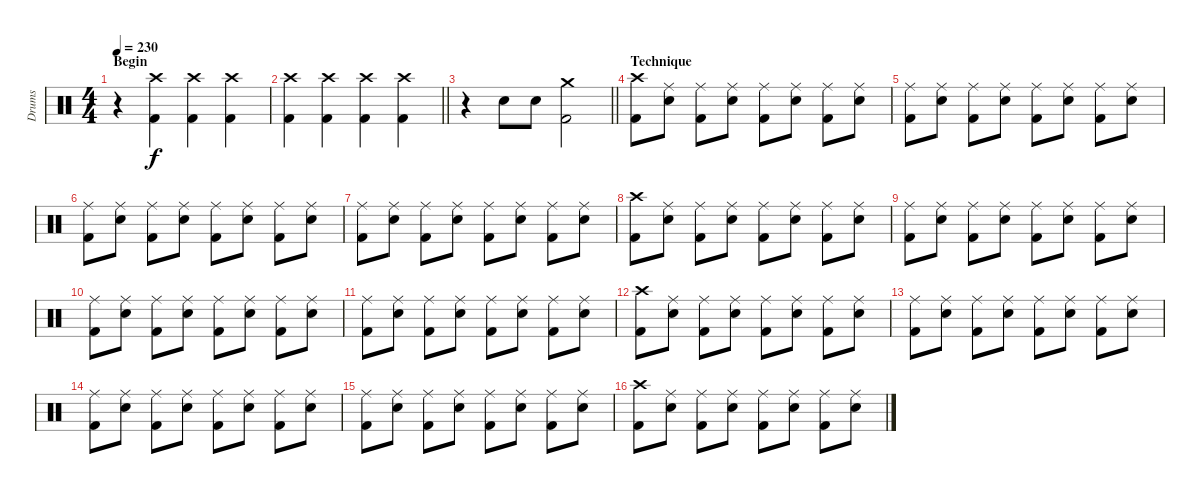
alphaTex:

\track ("Drums" "Drums") {instrument percussion}
\staff {score}
\articulation defaults
\ts (4 4)
\section ("" "Begin")
\tempo 230
\clef neutral
\ks c
r.4{dy f} ("Crash high (hit)" "Kick (hit) 2").4 ("Crash high (hit)" "Kick (hit) 2").4 ("Crash high (hit)" "Kick (hit) 2").4 |
\barLineRight lightlight
("Crash high (hit)" "Kick (hit) 2").4 ("Crash high (hit)" "Kick (hit) 2").4 ("Crash high (hit)" "Kick (hit) 2").4 ("Crash high (hit)" "Kick (hit) 2").4 |
\section ("" "")
\barLineRight lightlight
r.4 "Snare (hit) 2".8 "Snare (hit) 2".8 ("Crash medium (hit)" "Kick (hit) 2").2 |
\section ("" "Technique")
("Crash high (hit)" "Kick (hit) 2").8 ("Ride (middle)" "Snare (hit) 2").8 ("Ride (middle)" "Kick (hit) 2").8 ("Ride (middle)" "Snare (hit) 2").8 ("Ride (middle)" "Kick (hit) 2").8 ("Ride (middle)" "Snare (hit) 2").8 ("Ride (middle)" "Kick (hit) 2").8 ("Ride (middle)" "Snare (hit) 2").8 |
("Ride (middle)" "Kick (hit) 2").8 ("Ride (middle)" "Snare (hit) 2").8 ("Ride (middle)" "Kick (hit) 2").8 ("Ride (middle)" "Snare (hit) 2").8 ("Ride (middle)" "Kick (hit) 2").8 ("Ride (middle)" "Snare (hit) 2").8 ("Ride (middle)" "Kick (hit) 2").8 ("Ride (middle)" "Snare (hit) 2").8 |
("Ride (middle)" "Kick (hit) 2").8 ("Ride (middle)" "Snare (hit) 2").8 ("Ride (middle)" "Kick (hit) 2").8 ("Ride (middle)" "Snare (hit) 2").8 ("Ride (middle)" "Kick (hit) 2").8 ("Ride (middle)" "Snare (hit) 2").8 ("Ride (middle)" "Kick (hit) 2").8 ("Ride (middle)" "Snare (hit) 2").8 |
("Ride (middle)" "Kick (hit) 2").8 ("Ride (middle)" "Snare (hit) 2").8 ("Ride (middle)" "Kick (hit) 2").8 ("Ride (middle)" "Snare (hit) 2").8 ("Ride (middle)" "Kick (hit) 2").8 ("Ride (middle)" "Snare (hit) 2").8 ("Ride (middle)" "Kick (hit) 2").8 ("Ride (middle)" "Snare (hit) 2").8 |
("Crash high (hit)" "Kick (hit) 2").8 ("Ride (middle)" "Snare (hit) 2").8 ("Ride (middle)" "Kick (hit) 2").8 ("Ride (middle)" "Snare (hit) 2").8 ("Ride (middle)" "Kick (hit) 2").8 ("Ride (middle)" "Snare (hit) 2").8 ("Ride (middle)" "Kick (hit) 2").8 ("Ride (middle)" "Snare (hit) 2").8 |
("Ride (middle)" "Kick (hit) 2").8 ("Ride (middle)" "Snare (hit) 2").8 ("Ride (middle)" "Kick (hit) 2").8 ("Ride (middle)" "Snare (hit) 2").8 ("Ride (middle)" "Kick (hit) 2").8 ("Ride (middle)" "Snare (hit) 2").8 ("Ride (middle)" "Kick (hit) 2").8 ("Ride (middle)" "Snare (hit) 2").8 |
("Ride (middle)" "Kick (hit) 2").8 ("Ride (middle)" "Snare (hit) 2").8 ("Ride (middle)" "Kick (hit) 2").8 ("Ride (middle)" "Snare (hit) 2").8 ("Ride (middle)" "Kick (hit) 2").8 ("Ride (middle)" "Snare (hit) 2").8 ("Ride (middle)" "Kick (hit) 2").8 ("Ride (middle)" "Snare (hit) 2").8 |
("Ride (middle)" "Kick (hit) 2").8 ("Ride (middle)" "Snare (hit) 2").8 ("Ride (middle)" "Kick (hit) 2").8 ("Ride (middle)" "Snare (hit) 2").8 ("Ride (middle)" "Kick (hit) 2").8 ("Ride (middle)" "Snare (hit) 2").8 ("Ride (middle)" "Kick (hit) 2").8 ("Ride (middle)" "Snare (hit) 2").8 |
("Crash high (hit)" "Kick (hit) 2").8 ("Ride (middle)" "Snare (hit) 2").8 ("Ride (middle)" "Kick (hit) 2").8 ("Ride (middle)" "Snare (hit) 2").8 ("Ride (middle)" "Kick (hit) 2").8 ("Ride (middle)" "Snare (hit) 2").8 ("Ride (middle)" "Kick (hit) 2").8 ("Ride (middle)" "Snare (hit) 2").8 |
("Ride (middle)" "Kick (hit) 2").8 ("Ride (middle)" "Snare (hit) 2").8 ("Ride (middle)" "Kick (hit) 2").8 ("Ride (middle)" "Snare (hit) 2").8 ("Ride (middle)" "Kick (hit) 2").8 ("Ride (middle)" "Snare (hit) 2").8 ("Ride (middle)" "Kick (hit) 2").8 ("Ride (middle)" "Snare (hit) 2").8 |
("Ride (middle)" "Kick (hit) 2").8 ("Ride (middle)" "Snare (hit) 2").8 ("Ride (middle)" "Kick (hit) 2").8 ("Ride (middle)" "Snare (hit) 2").8 ("Ride (middle)" "Kick (hit) 2").8 ("Ride (middle)" "Snare (hit) 2").8 ("Ride (middle)" "Kick (hit) 2").8 ("Ride (middle)" "Snare (hit) 2").8 |
("Ride (middle)" "Kick (hit) 2").8 ("Ride (middle)" "Snare (hit) 2").8 ("Ride (middle)" "Kick (hit) 2").8 ("Ride (middle)" "Snare (hit) 2").8 ("Ride (middle)" "Kick (hit) 2").8 ("Ride (middle)" "Snare (hit) 2").8 ("Ride (middle)" "Kick (hit) 2").8 ("Ride (middle)" "Snare (hit) 2").8 |
("Crash high (hit)" "Kick (hit) 2").8 ("Ride (middle)" "Snare (hit) 2").8 ("Ride (middle)" "Kick (hit) 2").8 ("Ride (middle)" "Snare (hit) 2").8 ("Ride (middle)" "Kick (hit) 2").8 ("Ride (middle)" "Snare (hit) 2").8 ("Ride (middle)" "Kick (hit) 2").8 ("Ride (middle)" "Snare (hit) 2").8
